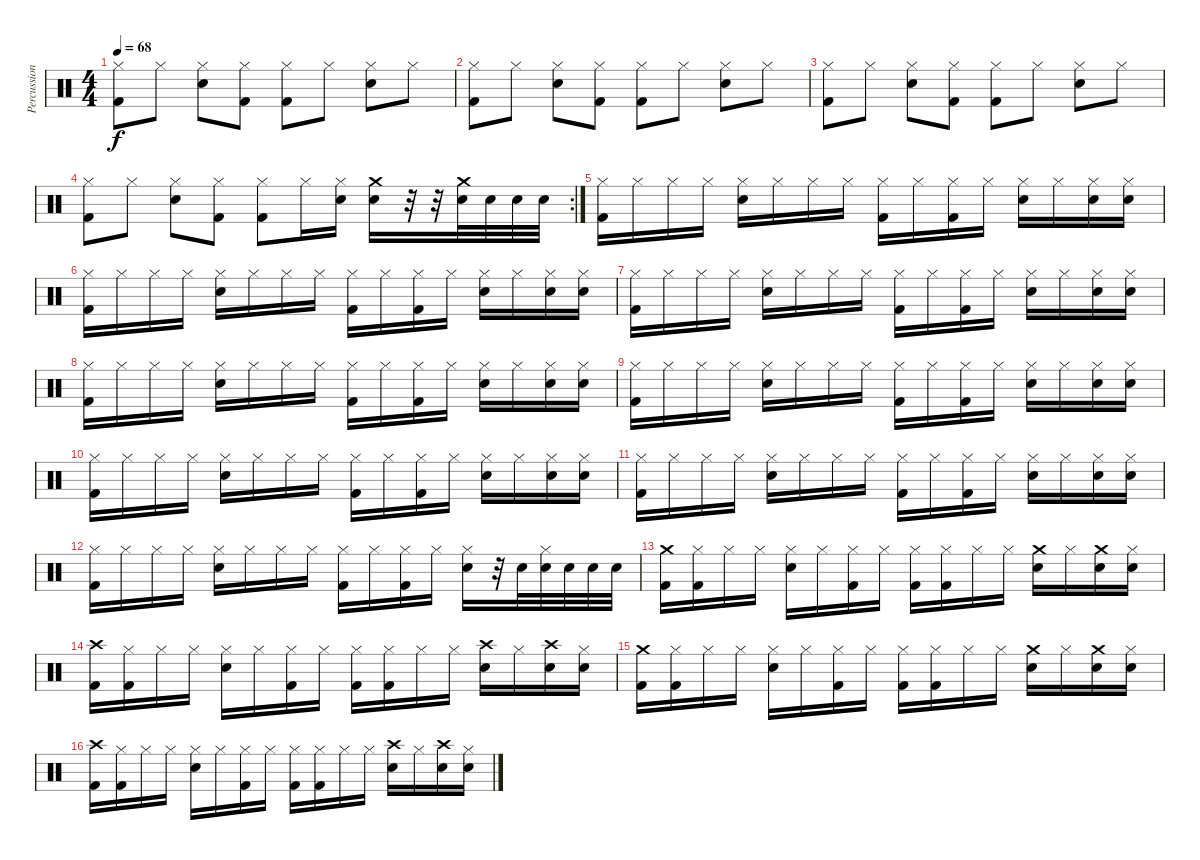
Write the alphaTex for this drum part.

\track ("Percussion" "Percussion") {instrument percussion}
\staff {score}
\articulation defaults
\ts (4 4)
\tempo 68
\clef neutral
\ks c
("Hi-Hat (closed)" "Kick (hit) 2").8{dy f} "Hi-Hat (closed)".8 ("Hi-Hat (closed)" "Electric Snare (hit)").8 ("Hi-Hat (closed)" "Kick (hit) 2").8 ("Hi-Hat (closed)" "Kick (hit) 2").8 "Hi-Hat (closed)".8 ("Hi-Hat (closed)" "Electric Snare (hit)").8 "Hi-Hat (closed)".8 |
("Hi-Hat (closed)" "Kick (hit) 2").8 "Hi-Hat (closed)".8 ("Hi-Hat (closed)" "Electric Snare (hit)").8 ("Hi-Hat (closed)" "Kick (hit) 2").8 ("Hi-Hat (closed)" "Kick (hit) 2").8 "Hi-Hat (closed)".8 ("Hi-Hat (closed)" "Electric Snare (hit)").8 "Hi-Hat (closed)".8 |
("Hi-Hat (closed)" "Kick (hit) 2").8 "Hi-Hat (closed)".8 ("Hi-Hat (closed)" "Electric Snare (hit)").8 ("Hi-Hat (closed)" "Kick (hit) 2").8 ("Hi-Hat (closed)" "Kick (hit) 2").8 "Hi-Hat (closed)".8 ("Hi-Hat (closed)" "Electric Snare (hit)").8 "Hi-Hat (closed)".8 |
\rc 2
("Hi-Hat (closed)" "Kick (hit) 2").8 "Hi-Hat (closed)".8 ("Hi-Hat (closed)" "Electric Snare (hit)").8 ("Hi-Hat (closed)" "Kick (hit) 2").8 ("Hi-Hat (closed)" "Kick (hit) 2").8 "Hi-Hat (closed)".16 ("Hi-Hat (closed)" "Electric Snare (hit)").16 ("Crash medium (hit)" "Electric Snare (hit)").16 r.32 r.32 ("Crash medium (hit)" "Electric Snare (hit)").32 "Electric Snare (hit)".32 "Electric Snare (hit)".32 "Electric Snare (hit)".32 |
("Hi-Hat (closed)" "Kick (hit) 2").16 "Hi-Hat (closed)".16 "Hi-Hat (closed)".16 "Hi-Hat (closed)".16 ("Hi-Hat (closed)" "Electric Snare (hit)").16 "Hi-Hat (closed)".16 "Hi-Hat (closed)".16 "Hi-Hat (closed)".16 ("Hi-Hat (closed)" "Kick (hit) 2").16 "Hi-Hat (closed)".16 ("Hi-Hat (closed)" "Kick (hit) 2").16 "Hi-Hat (closed)".16 ("Hi-Hat (closed)" "Electric Snare (hit)").16 "Hi-Hat (closed)".16 ("Hi-Hat (closed)" "Electric Snare (hit)").16 ("Hi-Hat (closed)" "Electric Snare (hit)").16 |
("Hi-Hat (closed)" "Kick (hit) 2").16 "Hi-Hat (closed)".16 "Hi-Hat (closed)".16 "Hi-Hat (closed)".16 ("Hi-Hat (closed)" "Electric Snare (hit)").16 "Hi-Hat (closed)".16 "Hi-Hat (closed)".16 "Hi-Hat (closed)".16 ("Hi-Hat (closed)" "Kick (hit) 2").16 "Hi-Hat (closed)".16 ("Hi-Hat (closed)" "Kick (hit) 2").16 "Hi-Hat (closed)".16 ("Hi-Hat (closed)" "Electric Snare (hit)").16 "Hi-Hat (closed)".16 ("Hi-Hat (closed)" "Electric Snare (hit)").16 ("Hi-Hat (closed)" "Electric Snare (hit)").16 |
("Hi-Hat (closed)" "Kick (hit) 2").16 "Hi-Hat (closed)".16 "Hi-Hat (closed)".16 "Hi-Hat (closed)".16 ("Hi-Hat (closed)" "Electric Snare (hit)").16 "Hi-Hat (closed)".16 "Hi-Hat (closed)".16 "Hi-Hat (closed)".16 ("Hi-Hat (closed)" "Kick (hit) 2").16 "Hi-Hat (closed)".16 ("Hi-Hat (closed)" "Kick (hit) 2").16 "Hi-Hat (closed)".16 ("Hi-Hat (closed)" "Electric Snare (hit)").16 "Hi-Hat (closed)".16 ("Hi-Hat (closed)" "Electric Snare (hit)").16 ("Hi-Hat (closed)" "Electric Snare (hit)").16 |
("Hi-Hat (closed)" "Kick (hit) 2").16 "Hi-Hat (closed)".16 "Hi-Hat (closed)".16 "Hi-Hat (closed)".16 ("Hi-Hat (closed)" "Electric Snare (hit)").16 "Hi-Hat (closed)".16 "Hi-Hat (closed)".16 "Hi-Hat (closed)".16 ("Hi-Hat (closed)" "Kick (hit) 2").16 "Hi-Hat (closed)".16 ("Hi-Hat (closed)" "Kick (hit) 2").16 "Hi-Hat (closed)".16 ("Hi-Hat (closed)" "Electric Snare (hit)").16 "Hi-Hat (closed)".16 ("Hi-Hat (closed)" "Electric Snare (hit)").16 ("Hi-Hat (closed)" "Electric Snare (hit)").16 |
("Hi-Hat (closed)" "Kick (hit) 2").16 "Hi-Hat (closed)".16 "Hi-Hat (closed)".16 "Hi-Hat (closed)".16 ("Hi-Hat (closed)" "Electric Snare (hit)").16 "Hi-Hat (closed)".16 "Hi-Hat (closed)".16 "Hi-Hat (closed)".16 ("Hi-Hat (closed)" "Kick (hit) 2").16 "Hi-Hat (closed)".16 ("Hi-Hat (closed)" "Kick (hit) 2").16 "Hi-Hat (closed)".16 ("Hi-Hat (closed)" "Electric Snare (hit)").16 "Hi-Hat (closed)".16 ("Hi-Hat (closed)" "Electric Snare (hit)").16 ("Hi-Hat (closed)" "Electric Snare (hit)").16 |
("Hi-Hat (closed)" "Kick (hit) 2").16 "Hi-Hat (closed)".16 "Hi-Hat (closed)".16 "Hi-Hat (closed)".16 ("Hi-Hat (closed)" "Electric Snare (hit)").16 "Hi-Hat (closed)".16 "Hi-Hat (closed)".16 "Hi-Hat (closed)".16 ("Hi-Hat (closed)" "Kick (hit) 2").16 "Hi-Hat (closed)".16 ("Hi-Hat (closed)" "Kick (hit) 2").16 "Hi-Hat (closed)".16 ("Hi-Hat (closed)" "Electric Snare (hit)").16 "Hi-Hat (closed)".16 ("Hi-Hat (closed)" "Electric Snare (hit)").16 ("Hi-Hat (closed)" "Electric Snare (hit)").16 |
("Hi-Hat (closed)" "Kick (hit) 2").16 "Hi-Hat (closed)".16 "Hi-Hat (closed)".16 "Hi-Hat (closed)".16 ("Hi-Hat (closed)" "Electric Snare (hit)").16 "Hi-Hat (closed)".16 "Hi-Hat (closed)".16 "Hi-Hat (closed)".16 ("Hi-Hat (closed)" "Kick (hit) 2").16 "Hi-Hat (closed)".16 ("Hi-Hat (closed)" "Kick (hit) 2").16 "Hi-Hat (closed)".16 ("Hi-Hat (closed)" "Electric Snare (hit)").16 "Hi-Hat (closed)".16 ("Hi-Hat (closed)" "Electric Snare (hit)").16 ("Hi-Hat (closed)" "Electric Snare (hit)").16 |
("Hi-Hat (closed)" "Kick (hit) 2").16 "Hi-Hat (closed)".16 "Hi-Hat (closed)".16 "Hi-Hat (closed)".16 ("Hi-Hat (closed)" "Electric Snare (hit)").16 "Hi-Hat (closed)".16 "Hi-Hat (closed)".16 "Hi-Hat (closed)".16 ("Hi-Hat (closed)" "Kick (hit) 2").16 "Hi-Hat (closed)".16 ("Hi-Hat (closed)" "Kick (hit) 2").16 "Hi-Hat (closed)".16 ("Hi-Hat (closed)" "Electric Snare (hit)").16 r.32 "Electric Snare (hit)".32 ("Hi-Hat (closed)" "Electric Snare (hit)").32 "Electric Snare (hit)".32 "Electric Snare (hit)".32 "Electric Snare (hit)".32 |
("Crash medium (hit)" "Kick (hit) 2").16 ("Hi-Hat (closed)" "Kick (hit) 2").16 "Hi-Hat (closed)".16 "Hi-Hat (closed)".16 ("Hi-Hat (closed)" "Electric Snare (hit)").16 "Hi-Hat (closed)".16 ("Hi-Hat (closed)" "Kick (hit) 2").16 "Hi-Hat (closed)".16 ("Hi-Hat (closed)" "Kick (hit) 2").16 ("Hi-Hat (closed)" "Kick (hit) 2").16 "Hi-Hat (closed)".16 "Hi-Hat (closed)".16 ("Crash medium (hit)" "Electric Snare (hit)").16 "Hi-Hat (closed)".16 ("Crash medium (hit)" "Electric Snare (hit)").16 ("Hi-Hat (closed)" "Electric Snare (hit)").16 |
("Crash high (hit)" "Kick (hit) 2").16 ("Hi-Hat (closed)" "Kick (hit) 2").16 "Hi-Hat (closed)".16 "Hi-Hat (closed)".16 ("Hi-Hat (closed)" "Electric Snare (hit)").16 "Hi-Hat (closed)".16 ("Hi-Hat (closed)" "Kick (hit) 2").16 "Hi-Hat (closed)".16 ("Hi-Hat (closed)" "Kick (hit) 2").16 ("Hi-Hat (closed)" "Kick (hit) 2").16 "Hi-Hat (closed)".16 "Hi-Hat (closed)".16 ("Crash high (hit)" "Electric Snare (hit)").16 "Hi-Hat (closed)".16 ("Crash high (hit)" "Electric Snare (hit)").16 ("Hi-Hat (closed)" "Electric Snare (hit)").16 |
("Crash medium (hit)" "Kick (hit) 2").16 ("Hi-Hat (closed)" "Kick (hit) 2").16 "Hi-Hat (closed)".16 "Hi-Hat (closed)".16 ("Hi-Hat (closed)" "Electric Snare (hit)").16 "Hi-Hat (closed)".16 ("Hi-Hat (closed)" "Kick (hit) 2").16 "Hi-Hat (closed)".16 ("Hi-Hat (closed)" "Kick (hit) 2").16 ("Hi-Hat (closed)" "Kick (hit) 2").16 "Hi-Hat (closed)".16 "Hi-Hat (closed)".16 ("Crash medium (hit)" "Electric Snare (hit)").16 "Hi-Hat (closed)".16 ("Crash medium (hit)" "Electric Snare (hit)").16 ("Hi-Hat (closed)" "Electric Snare (hit)").16 |
("Crash high (hit)" "Kick (hit) 2").16 ("Hi-Hat (closed)" "Kick (hit) 2").16 "Hi-Hat (closed)".16 "Hi-Hat (closed)".16 ("Hi-Hat (closed)" "Electric Snare (hit)").16 "Hi-Hat (closed)".16 ("Hi-Hat (closed)" "Kick (hit) 2").16 "Hi-Hat (closed)".16 ("Hi-Hat (closed)" "Kick (hit) 2").16 ("Hi-Hat (closed)" "Kick (hit) 2").16 "Hi-Hat (closed)".16 "Hi-Hat (closed)".16 ("Crash high (hit)" "Electric Snare (hit)").16 "Hi-Hat (closed)".16 ("Crash high (hit)" "Electric Snare (hit)").16 ("Hi-Hat (closed)" "Electric Snare (hit)").16
